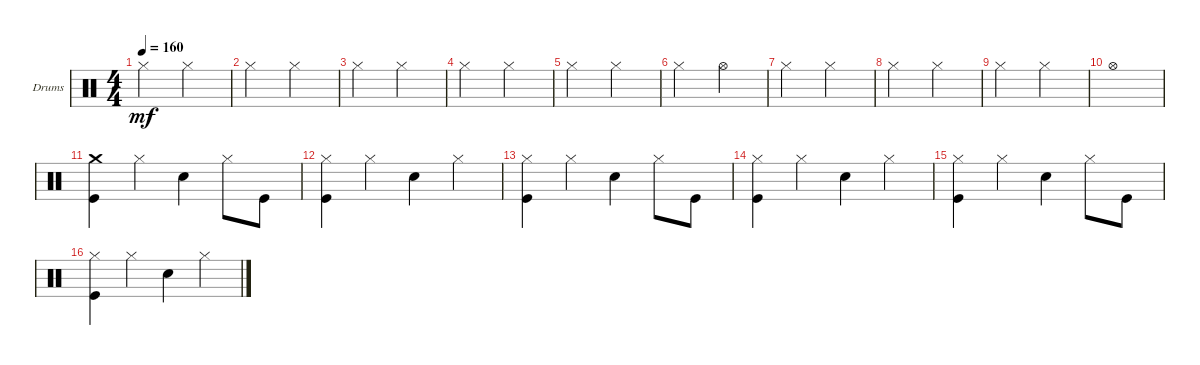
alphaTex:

\defaultSystemsLayout 4
\bracketExtendMode groupsimilarinstruments
\firstSystemTrackNameOrientation horizontal
\otherSystemsTrackNameOrientation horizontal
\track ("Drumkit" "Drums") {instrument percussion}
\staff {score}
\articulation defaults
\ts (4 4)
\tempo 160
\clef neutral
\ks c "Hi-Hat (closed)".2{dy mf} "Hi-Hat (closed)".2
|
"Hi-Hat (closed)".2 "Hi-Hat (closed)".2 |
\scale
0.474178 "Hi-Hat (closed)".2 "Hi-Hat (closed)".2 |
\scale
0.262911 "Hi-Hat (closed)".2 "Hi-Hat (closed)".2 |
\scale
0.262911 "Hi-Hat (closed)".2 "Hi-Hat (closed)".2 |
\scale
0.333333 "Hi-Hat (closed)".2 "Hi-Hat (open)".2 |
\scale
0.333333 "Hi-Hat (closed)".2 "Hi-Hat (closed)".2 |
\scale
0.333333 "Hi-Hat (closed)".2 "Hi-Hat (closed)".2 |
\scale
0.333333 "Hi-Hat (closed)".2 "Hi-Hat (closed)".2 |
\scale
0.333333 "Hi-Hat (open)".1 |
\scale
0.333333 ("Kick (hit)" "Crash medium (hit)").4 "Hi-Hat (closed)".4 "Snare (hit) 2".4 "Hi-Hat (closed)".8 "Kick (hit)".8 |
\scale
0.333333 ("Kick (hit)" "Hi-Hat (closed)").4 "Hi-Hat (closed)".4 "Snare (hit) 2".4 "Hi-Hat (closed)".4 |
\scale
0.333333 ("Kick (hit)" "Hi-Hat (closed)").4 "Hi-Hat (closed)".4 "Snare (hit) 2".4 "Hi-Hat (closed)".8 "Kick (hit)".8 |
\scale
0.333333 ("Kick (hit)" "Hi-Hat (closed)").4 "Hi-Hat (closed)".4 "Snare (hit) 2".4 "Hi-Hat (closed)".4 |
\scale
0.333333 ("Kick (hit)" "Hi-Hat (closed)").4 "Hi-Hat (closed)".4 "Snare (hit) 2".4 "Hi-Hat (closed)".8 "Kick (hit)".8 |
\scale
0.333333 ("Kick (hit)" "Hi-Hat (closed)").4 "Hi-Hat (closed)".4 "Snare (hit) 2".4 "Hi-Hat (closed)".4
